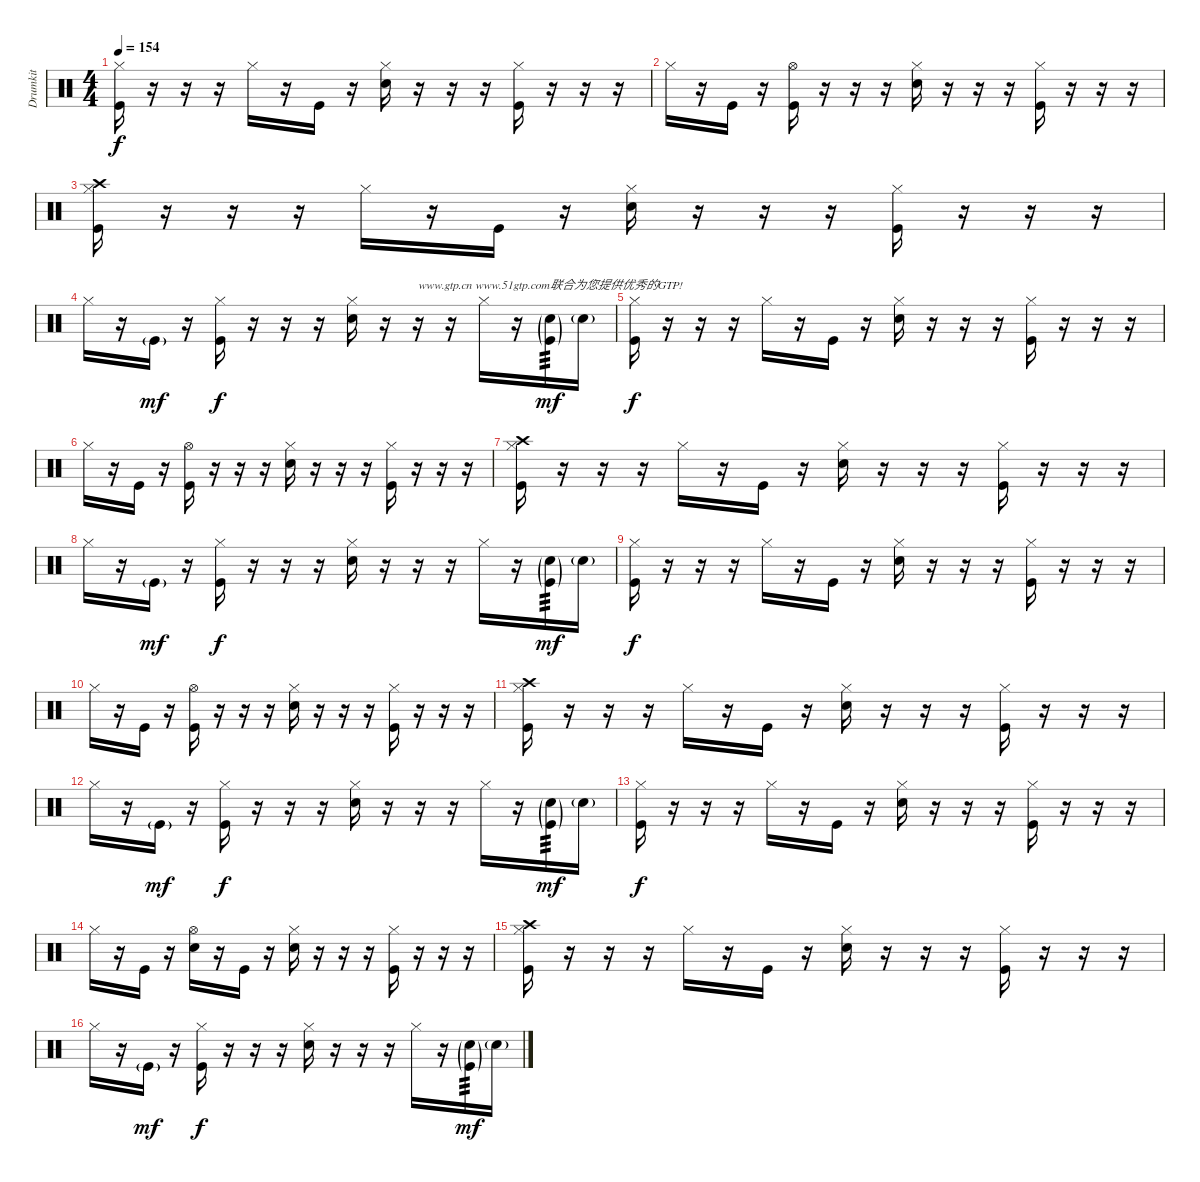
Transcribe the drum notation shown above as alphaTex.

\track ("Drumkit" "Drumkit") {instrument percussion}
\staff {score}
\articulation defaults
\ts (4 4)
\tempo 154
\clef neutral
\ks c
("Hi-Hat (closed)" "Kick (hit)").16{dy f} r.16 r.16 r.16 "Hi-Hat (closed)".16 r.16 "Kick (hit)".16 r.16 ("Hi-Hat (closed)" "Snare (hit) 2").16 r.16 r.16 r.16 ("Hi-Hat (closed)" "Kick (hit)").16 r.16 r.16 r.16 |
"Hi-Hat (closed)".16 r.16 "Kick (hit)".16 r.16 ("Hi-Hat (open)" "Kick (hit)").16 r.16 r.16 r.16 ("Hi-Hat (closed)" "Snare (hit) 2").16 r.16 r.16 r.16 ("Hi-Hat (closed)" "Kick (hit)").16 r.16 r.16 r.16 |
("Crash high (hit)" "Hi-Hat (closed)" "Kick (hit)").16 r.16 r.16 r.16 "Hi-Hat (closed)".16 r.16 "Kick (hit)".16 r.16 ("Hi-Hat (closed)" "Snare (hit) 2").16 r.16 r.16 r.16 ("Hi-Hat (closed)" "Kick (hit)").16 r.16 r.16 r.16 |
"Hi-Hat (closed)".16 r.16 "Kick (hit)"{g}.16{dy mf} r.16 ("Hi-Hat (closed)" "Kick (hit)").16{dy f} r.16 r.16 r.16 ("Hi-Hat (closed)" "Snare (hit) 2").16 r.16 r.16{txt "www.gtp.cn www.51gtp.com联合为您提供优秀的GTP!"} r.16 "Hi-Hat (closed)".16 r.16 ("Snare (hit) 2"{g} "Kick (hit)"{g}).16{tp 3 dy mf} "Snare (hit) 2"{g}.16 |
("Hi-Hat (closed)" "Kick (hit)").16{dy f} r.16 r.16 r.16 "Hi-Hat (closed)".16 r.16 "Kick (hit)".16 r.16 ("Hi-Hat (closed)" "Snare (hit) 2").16 r.16 r.16 r.16 ("Hi-Hat (closed)" "Kick (hit)").16 r.16 r.16 r.16 |
"Hi-Hat (closed)".16 r.16 "Kick (hit)".16 r.16 ("Hi-Hat (open)" "Kick (hit)").16 r.16 r.16 r.16 ("Hi-Hat (closed)" "Snare (hit) 2").16 r.16 r.16 r.16 ("Hi-Hat (closed)" "Kick (hit)").16 r.16 r.16 r.16 |
("Crash high (hit)" "Hi-Hat (closed)" "Kick (hit)").16 r.16 r.16 r.16 "Hi-Hat (closed)".16 r.16 "Kick (hit)".16 r.16 ("Hi-Hat (closed)" "Snare (hit) 2").16 r.16 r.16 r.16 ("Hi-Hat (closed)" "Kick (hit)").16 r.16 r.16 r.16 |
"Hi-Hat (closed)".16 r.16 "Kick (hit)"{g}.16{dy mf} r.16 ("Hi-Hat (closed)" "Kick (hit)").16{dy f} r.16 r.16 r.16 ("Hi-Hat (closed)" "Snare (hit) 2").16 r.16 r.16 r.16 "Hi-Hat (closed)".16 r.16 ("Snare (hit) 2"{g} "Kick (hit)"{g}).16{tp 3 dy mf} "Snare (hit) 2"{g}.16 |
("Hi-Hat (closed)" "Kick (hit)").16{dy f} r.16 r.16 r.16 "Hi-Hat (closed)".16 r.16 "Kick (hit)".16 r.16 ("Hi-Hat (closed)" "Snare (hit) 2").16 r.16 r.16 r.16 ("Hi-Hat (closed)" "Kick (hit)").16 r.16 r.16 r.16 |
"Hi-Hat (closed)".16 r.16 "Kick (hit)".16 r.16 ("Hi-Hat (open)" "Kick (hit)").16 r.16 r.16 r.16 ("Hi-Hat (closed)" "Snare (hit) 2").16 r.16 r.16 r.16 ("Hi-Hat (closed)" "Kick (hit)").16 r.16 r.16 r.16 |
("Crash high (hit)" "Hi-Hat (closed)" "Kick (hit)").16 r.16 r.16 r.16 "Hi-Hat (closed)".16 r.16 "Kick (hit)".16 r.16 ("Hi-Hat (closed)" "Snare (hit) 2").16 r.16 r.16 r.16 ("Hi-Hat (closed)" "Kick (hit)").16 r.16 r.16 r.16 |
"Hi-Hat (closed)".16 r.16 "Kick (hit)"{g}.16{dy mf} r.16 ("Hi-Hat (closed)" "Kick (hit)").16{dy f} r.16 r.16 r.16 ("Hi-Hat (closed)" "Snare (hit) 2").16 r.16 r.16 r.16 "Hi-Hat (closed)".16 r.16 ("Snare (hit) 2"{g} "Kick (hit)"{g}).16{tp 3 dy mf} "Snare (hit) 2"{g}.16 |
("Hi-Hat (closed)" "Kick (hit)").16{dy f} r.16 r.16 r.16 "Hi-Hat (closed)".16 r.16 "Kick (hit)".16 r.16 ("Hi-Hat (closed)" "Snare (hit) 2").16 r.16 r.16 r.16 ("Hi-Hat (closed)" "Kick (hit)").16 r.16 r.16 r.16 |
"Hi-Hat (closed)".16 r.16 "Kick (hit)".16 r.16 ("Hi-Hat (open)" "Snare (hit) 2").16 r.16 "Kick (hit)".16 r.16 ("Hi-Hat (closed)" "Snare (hit) 2").16 r.16 r.16 r.16 ("Hi-Hat (closed)" "Kick (hit)").16 r.16 r.16 r.16 |
("Crash high (hit)" "Hi-Hat (closed)" "Kick (hit)").16 r.16 r.16 r.16 "Hi-Hat (closed)".16 r.16 "Kick (hit)".16 r.16 ("Hi-Hat (closed)" "Snare (hit) 2").16 r.16 r.16 r.16 ("Hi-Hat (closed)" "Kick (hit)").16 r.16 r.16 r.16 |
"Hi-Hat (closed)".16 r.16 "Kick (hit)"{g}.16{dy mf} r.16 ("Hi-Hat (closed)" "Kick (hit)").16{dy f} r.16 r.16 r.16 ("Hi-Hat (closed)" "Snare (hit) 2").16 r.16 r.16 r.16 "Hi-Hat (closed)".16 r.16 ("Snare (hit) 2"{g} "Kick (hit)"{g}).16{tp 3 dy mf} "Snare (hit) 2"{g}.16
